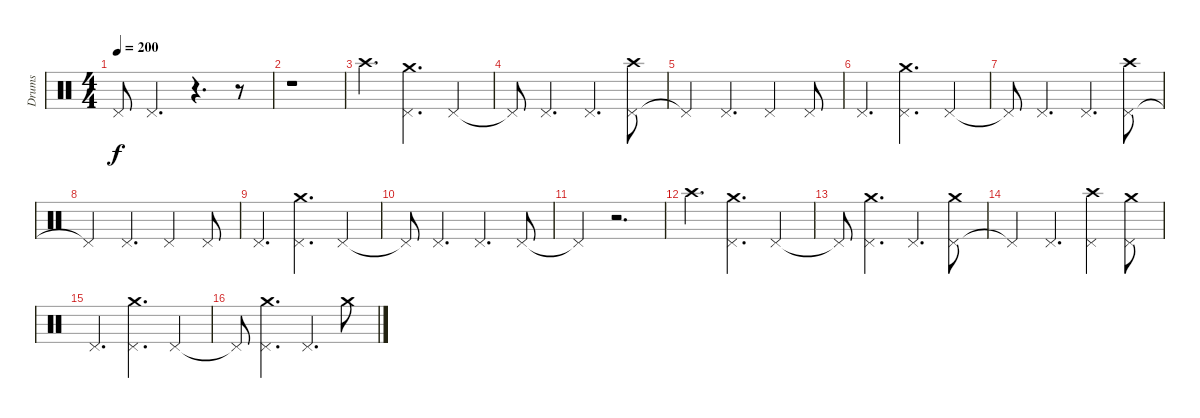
\track ("Drums" "Drums") {instrument percussion}
\staff {score}
\articulation defaults
\ts (4 4)
\tempo 200
\clef neutral
\ks c "Pedal Hi-Hat (hit)"{t}.8{dy f} "Pedal Hi-Hat (hit)".4{d}
r.4{d} r.8 |
r.1 |
"Crash high (hit)".4{d} ("Pedal Hi-Hat (hit)" "Crash medium (hit)").4{d} "Pedal Hi-Hat (hit)".4 |
"Pedal Hi-Hat (hit)"{t}.8 "Pedal Hi-Hat (hit)".4{d} "Pedal Hi-Hat (hit)".4{d} ("Pedal Hi-Hat (hit)" "Crash high (hit)").8 |
"Pedal Hi-Hat (hit)"{t}.4 "Pedal Hi-Hat (hit)".4{d} "Pedal Hi-Hat (hit)".4 "Pedal Hi-Hat (hit)".8 |
"Pedal Hi-Hat (hit)".4{d} ("Pedal Hi-Hat (hit)" "Crash medium (hit)").4{d} "Pedal Hi-Hat (hit)".4 |
"Pedal Hi-Hat (hit)"{t}.8 "Pedal Hi-Hat (hit)".4{d} "Pedal Hi-Hat (hit)".4{d} ("Pedal Hi-Hat (hit)" "Crash high (hit)").8 |
"Pedal Hi-Hat (hit)"{t}.4 "Pedal Hi-Hat (hit)".4{d} "Pedal Hi-Hat (hit)".4 "Pedal Hi-Hat (hit)".8 |
"Pedal Hi-Hat (hit)".4{d} ("Pedal Hi-Hat (hit)" "Crash medium (hit)").4{d} "Pedal Hi-Hat (hit)".4 |
"Pedal Hi-Hat (hit)"{t}.8 "Pedal Hi-Hat (hit)".4{d} "Pedal Hi-Hat (hit)".4{d} "Pedal Hi-Hat (hit)".8 |
"Pedal Hi-Hat (hit)"{t}.4 r.2{d} |
"Crash high (hit)".4{d} ("Pedal Hi-Hat (hit)" "Crash medium (hit)").4{d} "Pedal Hi-Hat (hit)".4 |
"Pedal Hi-Hat (hit)"{t}.8 ("Pedal Hi-Hat (hit)" "Crash medium (hit)").4{d} "Pedal Hi-Hat (hit)".4{d} ("Pedal Hi-Hat (hit)" "Crash medium (hit)").8 |
"Pedal Hi-Hat (hit)"{t}.4 "Pedal Hi-Hat (hit)".4{d} ("Pedal Hi-Hat (hit)" "Crash high (hit)").4 ("Pedal Hi-Hat (hit)" "Crash medium (hit)").8 |
"Pedal Hi-Hat (hit)".4{d} ("Pedal Hi-Hat (hit)" "Crash medium (hit)").4{d} "Pedal Hi-Hat (hit)".4 |
"Pedal Hi-Hat (hit)"{t}.8 ("Pedal Hi-Hat (hit)" "Crash medium (hit)").4{d} "Pedal Hi-Hat (hit)".4{d} "Crash medium (hit)".8
